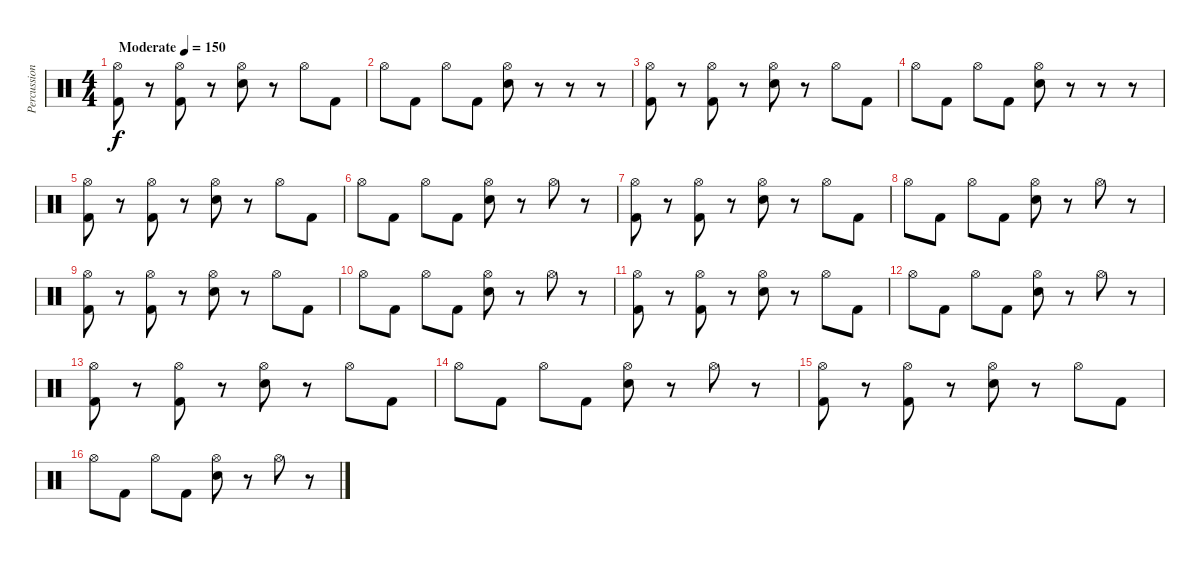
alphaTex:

\track ("Percussion" "Percussion") {instrument percussion}
\staff {score}
\articulation defaults
\ts (4 4)
\tempo (150 "Moderate")
\clef neutral
\ks c
("Hi-Hat (open)" "Kick (hit) 2").8{dy f} r.8 ("Hi-Hat (open)" "Kick (hit) 2").8 r.8 ("Hi-Hat (open)" "Snare (hit) 2").8 r.8 "Hi-Hat (open)".8 "Kick (hit) 2".8 |
"Hi-Hat (open)".8 "Kick (hit) 2".8 "Hi-Hat (open)".8 "Kick (hit) 2".8 ("Hi-Hat (open)" "Snare (hit) 2").8 r.8 r.8 r.8 |
("Hi-Hat (open)" "Kick (hit) 2").8 r.8 ("Hi-Hat (open)" "Kick (hit) 2").8 r.8 ("Hi-Hat (open)" "Snare (hit) 2").8 r.8 "Hi-Hat (open)".8 "Kick (hit) 2".8 |
"Hi-Hat (open)".8 "Kick (hit) 2".8 "Hi-Hat (open)".8 "Kick (hit) 2".8 ("Hi-Hat (open)" "Snare (hit) 2").8 r.8 r.8 r.8 |
("Hi-Hat (open)" "Kick (hit) 2").8 r.8 ("Hi-Hat (open)" "Kick (hit) 2").8 r.8 ("Hi-Hat (open)" "Snare (hit) 2").8 r.8 "Hi-Hat (open)".8 "Kick (hit) 2".8 |
"Hi-Hat (open)".8 "Kick (hit) 2".8 "Hi-Hat (open)".8 "Kick (hit) 2".8 ("Hi-Hat (open)" "Snare (hit) 2").8 r.8 "Hi-Hat (open)".8 r.8 |
("Hi-Hat (open)" "Kick (hit) 2").8 r.8 ("Hi-Hat (open)" "Kick (hit) 2").8 r.8 ("Hi-Hat (open)" "Snare (hit) 2").8 r.8 "Hi-Hat (open)".8 "Kick (hit) 2".8 |
"Hi-Hat (open)".8 "Kick (hit) 2".8 "Hi-Hat (open)".8 "Kick (hit) 2".8 ("Hi-Hat (open)" "Snare (hit) 2").8 r.8 "Hi-Hat (open)".8 r.8 |
("Hi-Hat (open)" "Kick (hit) 2").8 r.8 ("Hi-Hat (open)" "Kick (hit) 2").8 r.8 ("Hi-Hat (open)" "Snare (hit) 2").8 r.8 "Hi-Hat (open)".8 "Kick (hit) 2".8 |
"Hi-Hat (open)".8 "Kick (hit) 2".8 "Hi-Hat (open)".8 "Kick (hit) 2".8 ("Hi-Hat (open)" "Snare (hit) 2").8 r.8 "Hi-Hat (open)".8 r.8 |
("Hi-Hat (open)" "Kick (hit) 2").8 r.8 ("Hi-Hat (open)" "Kick (hit) 2").8 r.8 ("Hi-Hat (open)" "Snare (hit) 2").8 r.8 "Hi-Hat (open)".8 "Kick (hit) 2".8 |
"Hi-Hat (open)".8 "Kick (hit) 2".8 "Hi-Hat (open)".8 "Kick (hit) 2".8 ("Hi-Hat (open)" "Snare (hit) 2").8 r.8 "Hi-Hat (open)".8 r.8 |
("Hi-Hat (open)" "Kick (hit) 2").8 r.8 ("Hi-Hat (open)" "Kick (hit) 2").8 r.8 ("Hi-Hat (open)" "Snare (hit) 2").8 r.8 "Hi-Hat (open)".8 "Kick (hit) 2".8 |
"Hi-Hat (open)".8 "Kick (hit) 2".8 "Hi-Hat (open)".8 "Kick (hit) 2".8 ("Hi-Hat (open)" "Snare (hit) 2").8 r.8 "Hi-Hat (open)".8 r.8 |
("Hi-Hat (open)" "Kick (hit) 2").8 r.8 ("Hi-Hat (open)" "Kick (hit) 2").8 r.8 ("Hi-Hat (open)" "Snare (hit) 2").8 r.8 "Hi-Hat (open)".8 "Kick (hit) 2".8 |
"Hi-Hat (open)".8 "Kick (hit) 2".8 "Hi-Hat (open)".8 "Kick (hit) 2".8 ("Hi-Hat (open)" "Snare (hit) 2").8 r.8 "Hi-Hat (open)".8 r.8
